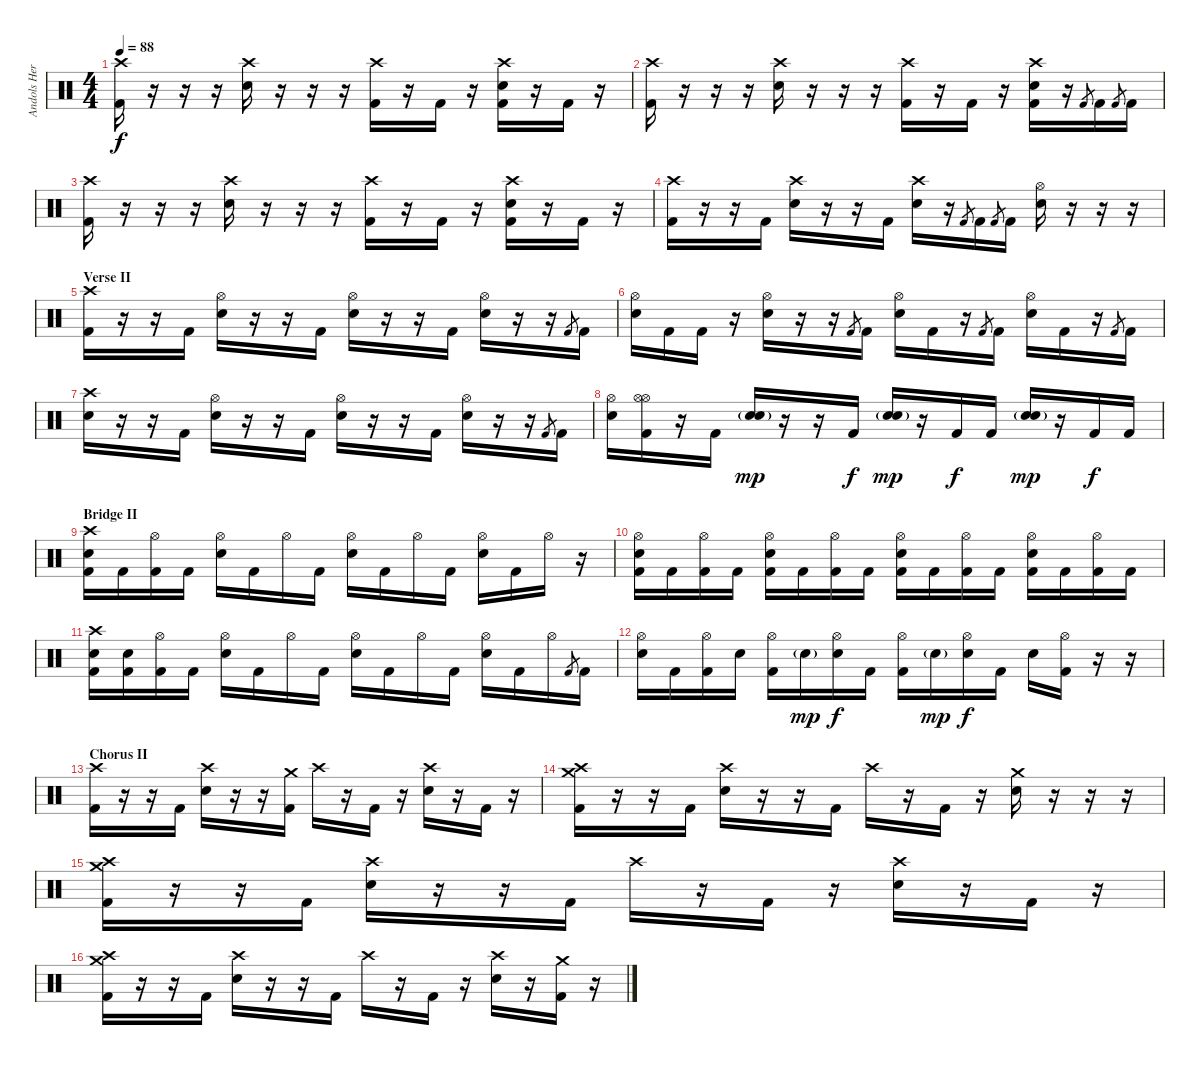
\track ("Andols Herrick" "Andols Her") {instrument percussion}
\staff {score}
\articulation defaults
\ts (4 4)
\tempo 88
\clef neutral
\ks c
("Crash high (hit)" "Kick (hit) 2").16{dy f} r.16 r.16 r.16 ("Crash high (hit)" "Snare (hit) 2").16 r.16 r.16 r.16 ("Crash high (hit)" "Kick (hit) 2").16 r.16 "Kick (hit) 2".16 r.16 ("Crash high (hit)" "Snare (hit) 2" "Kick (hit) 2").16 r.16 "Kick (hit) 2".16 r.16 |
("Crash high (hit)" "Kick (hit) 2").16 r.16 r.16 r.16 ("Crash high (hit)" "Snare (hit) 2").16 r.16 r.16 r.16 ("Crash high (hit)" "Kick (hit) 2").16 r.16 "Kick (hit) 2".16 r.16 ("Crash high (hit)" "Snare (hit) 2" "Kick (hit) 2").16 r.16 "Kick (hit) 2".8{gr} "Kick (hit) 2".16 "Kick (hit) 2".8{gr} "Kick (hit) 2".16 |
("Crash high (hit)" "Kick (hit) 2").16 r.16 r.16 r.16 ("Crash high (hit)" "Snare (hit) 2").16 r.16 r.16 r.16 ("Crash high (hit)" "Kick (hit) 2").16 r.16 "Kick (hit) 2".16 r.16 ("Crash high (hit)" "Snare (hit) 2" "Kick (hit) 2").16 r.16 "Kick (hit) 2".16 r.16 |
("Crash high (hit)" "Kick (hit) 2").16 r.16 r.16 "Kick (hit) 2".16 ("Crash high (hit)" "Snare (hit) 2").16 r.16 r.16 "Kick (hit) 2".16 ("Crash high (hit)" "Snare (hit) 2").16 r.16 "Kick (hit) 2".8{gr} "Kick (hit) 2".16 "Kick (hit) 2".8{gr} "Kick (hit) 2".16 ("Hi-Hat (open)" "Snare (hit) 2").16 r.16 r.16 r.16 |
\section ("" "Verse II")
("Crash high (hit)" "Kick (hit) 2").16 r.16 r.16 "Kick (hit) 2".16 ("Hi-Hat (open)" "Snare (hit) 2").16 r.16 r.16 "Kick (hit) 2".16 ("Hi-Hat (open)" "Snare (hit) 2").16 r.16 r.16 "Kick (hit) 2".16 ("Hi-Hat (open)" "Snare (hit) 2").16 r.16 r.16 "Kick (hit) 2".8{gr} "Kick (hit) 2".16 |
("Hi-Hat (open)" "Snare (hit) 2").16 "Kick (hit) 2".16 "Kick (hit) 2".16 r.16 ("Hi-Hat (open)" "Snare (hit) 2").16 r.16 r.16 "Kick (hit) 2".8{gr} "Kick (hit) 2".16 ("Hi-Hat (open)" "Snare (hit) 2").16 "Kick (hit) 2".16 r.16 "Kick (hit) 2".8{gr} "Kick (hit) 2".16 ("Hi-Hat (open)" "Snare (hit) 2").16 "Kick (hit) 2".16 r.16 "Kick (hit) 2".8{gr} "Kick (hit) 2".16 |
("Crash high (hit)" "Snare (hit) 2").16 r.16 r.16 "Kick (hit) 2".16 ("Hi-Hat (open)" "Snare (hit) 2").16 r.16 r.16 "Kick (hit) 2".16 ("Hi-Hat (open)" "Snare (hit) 2").16 r.16 r.16 "Kick (hit) 2".16 ("Hi-Hat (open)" "Snare (hit) 2").16 r.16 r.16 "Kick (hit) 2".8{gr} "Kick (hit) 2".16 |
("Hi-Hat (open)" "Snare (hit) 2").16 ("Hi-Hat (open)" "Hi-Hat (open)" "Kick (hit) 2").16 r.16 "Kick (hit) 2".16 ("Snare (hit) 2"{g} "Snare (hit) 2").16{dy mp} r.16 r.16 "Kick (hit) 2".16{dy f} ("Snare (hit) 2"{g} "Snare (hit) 2").16{dy mp} r.16 "Kick (hit) 2".16{dy f} "Kick (hit) 2".16 ("Snare (hit) 2"{g} "Snare (hit) 2").16{dy mp} r.16 "Kick (hit) 2".16{dy f} "Kick (hit) 2".16 |
\section ("" "Bridge II")
("Crash high (hit)" "Snare (hit) 2" "Kick (hit) 2").16 "Kick (hit) 2".16 ("Hi-Hat (open)" "Kick (hit) 2").16 "Kick (hit) 2".16 ("Hi-Hat (open)" "Snare (hit) 2").16 "Kick (hit) 2".16 "Hi-Hat (open)".16 "Kick (hit) 2".16 ("Hi-Hat (open)" "Snare (hit) 2").16 "Kick (hit) 2".16 "Hi-Hat (open)".16 "Kick (hit) 2".16 ("Hi-Hat (open)" "Snare (hit) 2").16 "Kick (hit) 2".16 "Hi-Hat (open)".16 r.16 |
("Hi-Hat (open)" "Snare (hit) 2" "Kick (hit) 2").16 "Kick (hit) 2".16 ("Hi-Hat (open)" "Kick (hit) 2").16 "Kick (hit) 2".16 ("Hi-Hat (open)" "Snare (hit) 2" "Kick (hit) 2").16 "Kick (hit) 2".16 ("Hi-Hat (open)" "Kick (hit) 2").16 "Kick (hit) 2".16 ("Hi-Hat (open)" "Snare (hit) 2" "Kick (hit) 2").16 "Kick (hit) 2".16 ("Hi-Hat (open)" "Kick (hit) 2").16 "Kick (hit) 2".16 ("Hi-Hat (open)" "Snare (hit) 2" "Kick (hit) 2").16 "Kick (hit) 2".16 ("Hi-Hat (open)" "Kick (hit) 2").16 "Kick (hit) 2".16 |
("Crash high (hit)" "Snare (hit) 2" "Kick (hit) 2").16 ("Snare (hit) 2" "Kick (hit) 2").16 ("Hi-Hat (open)" "Kick (hit) 2").16 "Kick (hit) 2".16 ("Hi-Hat (open)" "Snare (hit) 2").16 "Kick (hit) 2".16 "Hi-Hat (open)".16 "Kick (hit) 2".16 ("Hi-Hat (open)" "Snare (hit) 2").16 "Kick (hit) 2".16 "Hi-Hat (open)".16 "Kick (hit) 2".16 ("Hi-Hat (open)" "Snare (hit) 2").16 "Kick (hit) 2".16 "Hi-Hat (open)".16 "Kick (hit) 2".8{gr} "Kick (hit) 2".16 |
("Hi-Hat (open)" "Snare (hit) 2").16 "Kick (hit) 2".16 ("Hi-Hat (open)" "Kick (hit) 2").16 "Snare (hit) 2".16 ("Hi-Hat (open)" "Kick (hit) 2").16 "Snare (hit) 2"{g}.16{dy mp} ("Hi-Hat (open)" "Snare (hit) 2").16{dy f} "Kick (hit) 2".16 ("Hi-Hat (open)" "Kick (hit) 2").16 "Snare (hit) 2"{g}.16{dy mp} ("Hi-Hat (open)" "Snare (hit) 2").16{dy f} "Kick (hit) 2".16 "Snare (hit) 2".16 ("Hi-Hat (open)" "Kick (hit) 2").16 r.16 r.16 |
\section ("" "Chorus II")
("Crash high (hit)" "Kick (hit) 2").16 r.16 r.16 "Kick (hit) 2".16 ("Crash high (hit)" "Snare (hit) 2").16 r.16 r.16 ("Crash medium (hit)" "Kick (hit) 2").16 "Crash high (hit)".16 r.16 "Kick (hit) 2".16 r.16 ("Crash high (hit)" "Snare (hit) 2").16 r.16 "Kick (hit) 2".16 r.16 |
("Crash high (hit)" "Crash medium (hit)" "Kick (hit) 2").16 r.16 r.16 "Kick (hit) 2".16 ("Crash high (hit)" "Snare (hit) 2").16 r.16 r.16 "Kick (hit) 2".16 "Crash high (hit)".16 r.16 "Kick (hit) 2".16 r.16 ("Crash medium (hit)" "Snare (hit) 2").16 r.16 r.16 r.16 |
("Crash high (hit)" "Crash medium (hit)" "Kick (hit) 2").16 r.16 r.16 "Kick (hit) 2".16 ("Crash high (hit)" "Snare (hit) 2").16 r.16 r.16 "Kick (hit) 2".16 "Crash high (hit)".16 r.16 "Kick (hit) 2".16 r.16 ("Crash high (hit)" "Snare (hit) 2").16 r.16 "Kick (hit) 2".16 r.16 |
("Crash high (hit)" "Crash medium (hit)" "Kick (hit) 2").16 r.16 r.16 "Kick (hit) 2".16 ("Crash high (hit)" "Snare (hit) 2").16 r.16 r.16 "Kick (hit) 2".16 "Crash high (hit)".16 r.16 "Kick (hit) 2".16 r.16 ("Crash high (hit)" "Snare (hit) 2").16 r.16 ("Crash medium (hit)" "Kick (hit) 2").16 r.16
